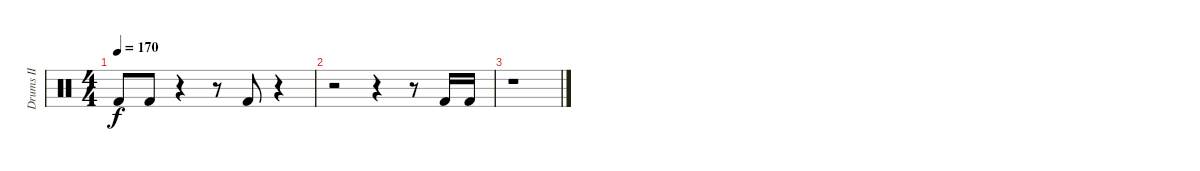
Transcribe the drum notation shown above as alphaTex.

\track ("Drums II" "Drums II") {instrument percussion}
\staff {score}
\articulation defaults
\ts (4 4)
\tempo 170
\clef neutral
\ks c "Kick (hit) 2".8{dy f} "Kick (hit) 2".8
r.4 r.8 "Kick (hit) 2".8 r.4 |
r.2 r.4 r.8 "Kick (hit) 2".16 "Kick (hit) 2".16 |
r.1
